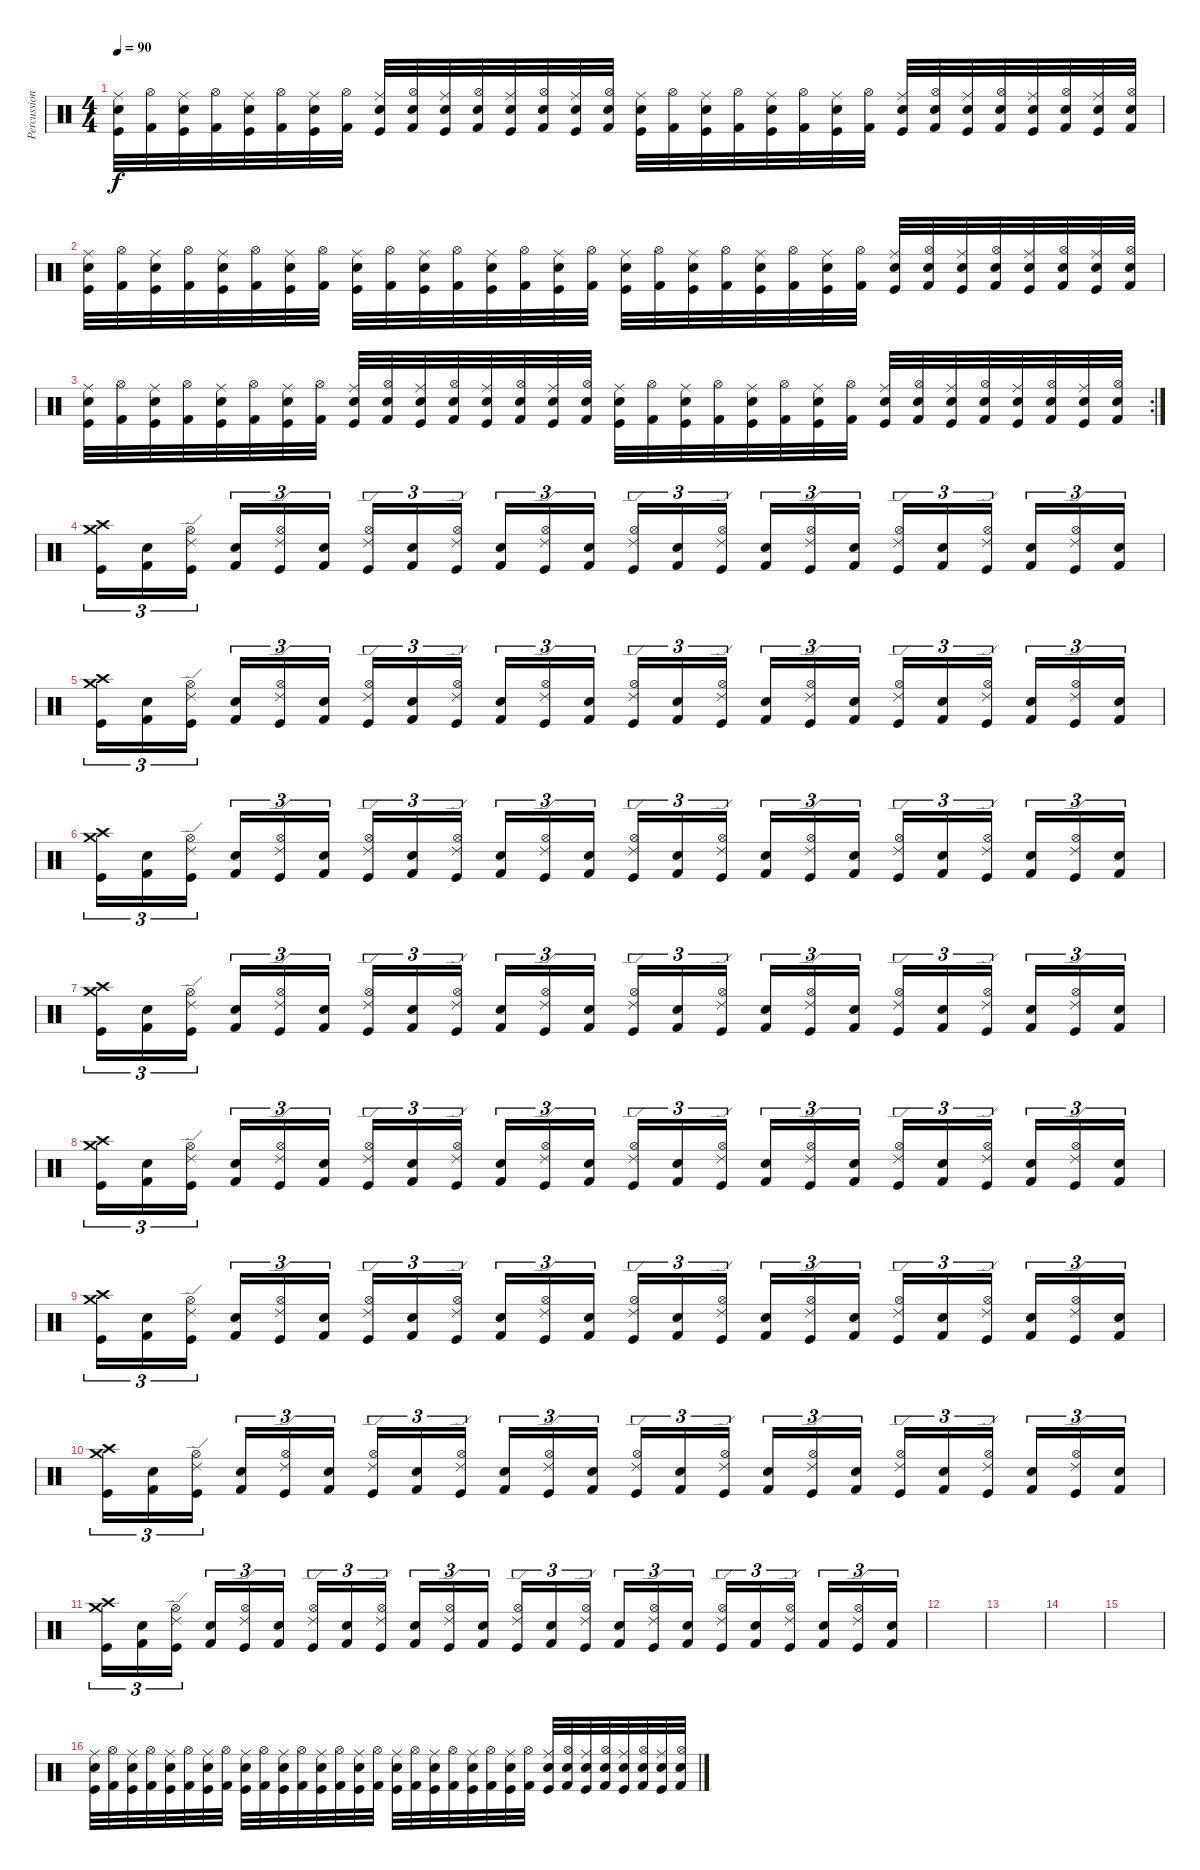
\track ("Percussion" "Percussion") {instrument percussion}
\staff {score}
\articulation defaults
\ts (4 4)
\tempo 90
\clef neutral
\ks c
("Electric Snare (hit)" "Ride (middle)" "Kick (hit)").32{dy f} ("Hi-Hat (open)" "Kick (hit) 2").32 ("Electric Snare (hit)" "Ride (middle)" "Kick (hit)").32 ("Hi-Hat (open)" "Kick (hit) 2").32 ("Electric Snare (hit)" "Ride (middle)" "Kick (hit)").32 ("Hi-Hat (open)" "Kick (hit) 2").32 ("Electric Snare (hit)" "Ride (middle)" "Kick (hit)").32 ("Hi-Hat (open)" "Kick (hit) 2").32 ("Electric Snare (hit)" "Ride (middle)" "Kick (hit)").32 ("Electric Snare (hit)" "Hi-Hat (open)" "Kick (hit) 2").32 ("Electric Snare (hit)" "Ride (middle)" "Kick (hit)").32 ("Electric Snare (hit)" "Hi-Hat (open)" "Kick (hit) 2").32 ("Electric Snare (hit)" "Ride (middle)" "Kick (hit)").32 ("Electric Snare (hit)" "Hi-Hat (open)" "Kick (hit) 2").32 ("Electric Snare (hit)" "Ride (middle)" "Kick (hit)").32 ("Electric Snare (hit)" "Hi-Hat (open)" "Kick (hit) 2").32 ("Electric Snare (hit)" "Ride (middle)" "Kick (hit)").32 ("Hi-Hat (open)" "Kick (hit) 2").32 ("Electric Snare (hit)" "Ride (middle)" "Kick (hit)").32 ("Hi-Hat (open)" "Kick (hit) 2").32 ("Electric Snare (hit)" "Ride (middle)" "Kick (hit)").32 ("Hi-Hat (open)" "Kick (hit) 2").32 ("Electric Snare (hit)" "Ride (middle)" "Kick (hit)").32 ("Hi-Hat (open)" "Kick (hit) 2").32 ("Electric Snare (hit)" "Ride (middle)" "Kick (hit)").32 ("Electric Snare (hit)" "Hi-Hat (open)" "Kick (hit) 2").32 ("Electric Snare (hit)" "Ride (middle)" "Kick (hit)").32 ("Electric Snare (hit)" "Hi-Hat (open)" "Kick (hit) 2").32 ("Electric Snare (hit)" "Ride (middle)" "Kick (hit)").32 ("Electric Snare (hit)" "Hi-Hat (open)" "Kick (hit) 2").32 ("Electric Snare (hit)" "Ride (middle)" "Kick (hit)").32 ("Electric Snare (hit)" "Hi-Hat (open)" "Kick (hit) 2").32 |
("Electric Snare (hit)" "Ride (middle)" "Kick (hit)").32 ("Hi-Hat (open)" "Kick (hit) 2").32 ("Electric Snare (hit)" "Ride (middle)" "Kick (hit)").32 ("Hi-Hat (open)" "Kick (hit) 2").32 ("Electric Snare (hit)" "Ride (middle)" "Kick (hit)").32 ("Hi-Hat (open)" "Kick (hit) 2").32 ("Electric Snare (hit)" "Ride (middle)" "Kick (hit)").32 ("Hi-Hat (open)" "Kick (hit) 2").32 ("Electric Snare (hit)" "Ride (middle)" "Kick (hit)").32 ("Hi-Hat (open)" "Kick (hit) 2").32 ("Electric Snare (hit)" "Ride (middle)" "Kick (hit)").32 ("Hi-Hat (open)" "Kick (hit) 2").32 ("Electric Snare (hit)" "Ride (middle)" "Kick (hit)").32 ("Hi-Hat (open)" "Kick (hit) 2").32 ("Electric Snare (hit)" "Ride (middle)" "Kick (hit)").32 ("Hi-Hat (open)" "Kick (hit) 2").32 ("Electric Snare (hit)" "Ride (middle)" "Kick (hit)").32 ("Hi-Hat (open)" "Kick (hit) 2").32 ("Electric Snare (hit)" "Ride (middle)" "Kick (hit)").32 ("Hi-Hat (open)" "Kick (hit) 2").32 ("Electric Snare (hit)" "Ride (middle)" "Kick (hit)").32 ("Hi-Hat (open)" "Kick (hit) 2").32 ("Electric Snare (hit)" "Ride (middle)" "Kick (hit)").32 ("Hi-Hat (open)" "Kick (hit) 2").32 ("Electric Snare (hit)" "Ride (middle)" "Kick (hit)").32 ("Electric Snare (hit)" "Hi-Hat (open)" "Kick (hit) 2").32 ("Electric Snare (hit)" "Ride (middle)" "Kick (hit)").32 ("Electric Snare (hit)" "Hi-Hat (open)" "Kick (hit) 2").32 ("Electric Snare (hit)" "Ride (middle)" "Kick (hit)").32 ("Electric Snare (hit)" "Hi-Hat (open)" "Kick (hit) 2").32 ("Electric Snare (hit)" "Ride (middle)" "Kick (hit)").32 ("Electric Snare (hit)" "Hi-Hat (open)" "Kick (hit) 2").32 |
\rc 2
("Electric Snare (hit)" "Ride (middle)" "Kick (hit)").32 ("Hi-Hat (open)" "Kick (hit) 2").32 ("Electric Snare (hit)" "Ride (middle)" "Kick (hit)").32 ("Hi-Hat (open)" "Kick (hit) 2").32 ("Electric Snare (hit)" "Ride (middle)" "Kick (hit)").32 ("Hi-Hat (open)" "Kick (hit) 2").32 ("Electric Snare (hit)" "Ride (middle)" "Kick (hit)").32 ("Hi-Hat (open)" "Kick (hit) 2").32 ("Electric Snare (hit)" "Ride (middle)" "Kick (hit)").32 ("Electric Snare (hit)" "Hi-Hat (open)" "Kick (hit) 2").32 ("Electric Snare (hit)" "Ride (middle)" "Kick (hit)").32 ("Electric Snare (hit)" "Hi-Hat (open)" "Kick (hit) 2").32 ("Electric Snare (hit)" "Ride (middle)" "Kick (hit)").32 ("Electric Snare (hit)" "Hi-Hat (open)" "Kick (hit) 2").32 ("Electric Snare (hit)" "Ride (middle)" "Kick (hit)").32 ("Electric Snare (hit)" "Hi-Hat (open)" "Kick (hit) 2").32 ("Electric Snare (hit)" "Ride (middle)" "Kick (hit)").32 ("Hi-Hat (open)" "Kick (hit) 2").32 ("Electric Snare (hit)" "Ride (middle)" "Kick (hit)").32 ("Hi-Hat (open)" "Kick (hit) 2").32 ("Electric Snare (hit)" "Ride (middle)" "Kick (hit)").32 ("Hi-Hat (open)" "Kick (hit) 2").32 ("Electric Snare (hit)" "Ride (middle)" "Kick (hit)").32 ("Hi-Hat (open)" "Kick (hit) 2").32 ("Electric Snare (hit)" "Ride (middle)" "Kick (hit)").32 ("Electric Snare (hit)" "Hi-Hat (open)" "Kick (hit) 2").32 ("Electric Snare (hit)" "Ride (middle)" "Kick (hit)").32 ("Electric Snare (hit)" "Hi-Hat (open)" "Kick (hit) 2").32 ("Electric Snare (hit)" "Ride (middle)" "Kick (hit)").32 ("Electric Snare (hit)" "Hi-Hat (open)" "Kick (hit) 2").32 ("Electric Snare (hit)" "Ride (middle)" "Kick (hit)").32 ("Electric Snare (hit)" "Hi-Hat (open)" "Kick (hit) 2").32 |
("Crash high (hit)" "Crash medium (hit)" "Kick (hit)").16{tu (3 2)} ("Snare (hit) 2" "Kick (hit) 2").16{tu (3 2)} ("Hi-Hat (open)" "Ride (edge) 2" "Kick (hit)").16{tu (3 2)} ("Snare (hit) 2" "Kick (hit) 2").16{tu (3 2)} ("Hi-Hat (open)" "Ride (edge) 2" "Kick (hit)").16{tu (3 2)} ("Snare (hit) 2" "Kick (hit) 2").16{tu (3 2)} ("Hi-Hat (open)" "Ride (edge) 2" "Kick (hit)").16{tu (3 2)} ("Snare (hit) 2" "Kick (hit) 2").16{tu (3 2)} ("Hi-Hat (open)" "Ride (edge) 2" "Kick (hit)").16{tu (3 2)} ("Snare (hit) 2" "Kick (hit) 2").16{tu (3 2)} ("Hi-Hat (open)" "Ride (edge) 2" "Kick (hit)").16{tu (3 2)} ("Snare (hit) 2" "Kick (hit) 2").16{tu (3 2)} ("Hi-Hat (open)" "Ride (edge) 2" "Kick (hit)").16{tu (3 2)} ("Snare (hit) 2" "Kick (hit) 2").16{tu (3 2)} ("Hi-Hat (open)" "Ride (edge) 2" "Kick (hit)").16{tu (3 2)} ("Snare (hit) 2" "Kick (hit) 2").16{tu (3 2)} ("Hi-Hat (open)" "Ride (edge) 2" "Kick (hit)").16{tu (3 2)} ("Snare (hit) 2" "Kick (hit) 2").16{tu (3 2)} ("Hi-Hat (open)" "Ride (edge) 2" "Kick (hit)").16{tu (3 2)} ("Snare (hit) 2" "Kick (hit) 2").16{tu (3 2)} ("Hi-Hat (open)" "Ride (edge) 2" "Kick (hit)").16{tu (3 2)} ("Snare (hit) 2" "Kick (hit) 2").16{tu (3 2)} ("Hi-Hat (open)" "Ride (edge) 2" "Kick (hit)").16{tu (3 2)} ("Snare (hit) 2" "Kick (hit) 2").16{tu (3 2)} |
("Crash high (hit)" "Crash medium (hit)" "Kick (hit)").16{tu (3 2)} ("Snare (hit) 2" "Kick (hit) 2").16{tu (3 2)} ("Hi-Hat (open)" "Ride (edge) 2" "Kick (hit)").16{tu (3 2)} ("Snare (hit) 2" "Kick (hit) 2").16{tu (3 2)} ("Hi-Hat (open)" "Ride (edge) 2" "Kick (hit)").16{tu (3 2)} ("Snare (hit) 2" "Kick (hit) 2").16{tu (3 2)} ("Hi-Hat (open)" "Ride (edge) 2" "Kick (hit)").16{tu (3 2)} ("Snare (hit) 2" "Kick (hit) 2").16{tu (3 2)} ("Hi-Hat (open)" "Ride (edge) 2" "Kick (hit)").16{tu (3 2)} ("Snare (hit) 2" "Kick (hit) 2").16{tu (3 2)} ("Hi-Hat (open)" "Ride (edge) 2" "Kick (hit)").16{tu (3 2)} ("Snare (hit) 2" "Kick (hit) 2").16{tu (3 2)} ("Hi-Hat (open)" "Ride (edge) 2" "Kick (hit)").16{tu (3 2)} ("Snare (hit) 2" "Kick (hit) 2").16{tu (3 2)} ("Hi-Hat (open)" "Ride (edge) 2" "Kick (hit)").16{tu (3 2)} ("Snare (hit) 2" "Kick (hit) 2").16{tu (3 2)} ("Hi-Hat (open)" "Ride (edge) 2" "Kick (hit)").16{tu (3 2)} ("Snare (hit) 2" "Kick (hit) 2").16{tu (3 2)} ("Hi-Hat (open)" "Ride (edge) 2" "Kick (hit)").16{tu (3 2)} ("Snare (hit) 2" "Kick (hit) 2").16{tu (3 2)} ("Hi-Hat (open)" "Ride (edge) 2" "Kick (hit)").16{tu (3 2)} ("Snare (hit) 2" "Kick (hit) 2").16{tu (3 2)} ("Hi-Hat (open)" "Ride (edge) 2" "Kick (hit)").16{tu (3 2)} ("Snare (hit) 2" "Kick (hit) 2").16{tu (3 2)} |
("Crash high (hit)" "Crash medium (hit)" "Kick (hit)").16{tu (3 2)} ("Snare (hit) 2" "Kick (hit) 2").16{tu (3 2)} ("Hi-Hat (open)" "Ride (edge) 2" "Kick (hit)").16{tu (3 2)} ("Snare (hit) 2" "Kick (hit) 2").16{tu (3 2)} ("Hi-Hat (open)" "Ride (edge) 2" "Kick (hit)").16{tu (3 2)} ("Snare (hit) 2" "Kick (hit) 2").16{tu (3 2)} ("Hi-Hat (open)" "Ride (edge) 2" "Kick (hit)").16{tu (3 2)} ("Snare (hit) 2" "Kick (hit) 2").16{tu (3 2)} ("Hi-Hat (open)" "Ride (edge) 2" "Kick (hit)").16{tu (3 2)} ("Snare (hit) 2" "Kick (hit) 2").16{tu (3 2)} ("Hi-Hat (open)" "Ride (edge) 2" "Kick (hit)").16{tu (3 2)} ("Snare (hit) 2" "Kick (hit) 2").16{tu (3 2)} ("Hi-Hat (open)" "Ride (edge) 2" "Kick (hit)").16{tu (3 2)} ("Snare (hit) 2" "Kick (hit) 2").16{tu (3 2)} ("Hi-Hat (open)" "Ride (edge) 2" "Kick (hit)").16{tu (3 2)} ("Snare (hit) 2" "Kick (hit) 2").16{tu (3 2)} ("Hi-Hat (open)" "Ride (edge) 2" "Kick (hit)").16{tu (3 2)} ("Snare (hit) 2" "Kick (hit) 2").16{tu (3 2)} ("Hi-Hat (open)" "Ride (edge) 2" "Kick (hit)").16{tu (3 2)} ("Snare (hit) 2" "Kick (hit) 2").16{tu (3 2)} ("Hi-Hat (open)" "Ride (edge) 2" "Kick (hit)").16{tu (3 2)} ("Snare (hit) 2" "Kick (hit) 2").16{tu (3 2)} ("Hi-Hat (open)" "Ride (edge) 2" "Kick (hit)").16{tu (3 2)} ("Snare (hit) 2" "Kick (hit) 2").16{tu (3 2)} |
("Crash high (hit)" "Crash medium (hit)" "Kick (hit)").16{tu (3 2)} ("Snare (hit) 2" "Kick (hit) 2").16{tu (3 2)} ("Hi-Hat (open)" "Ride (edge) 2" "Kick (hit)").16{tu (3 2)} ("Snare (hit) 2" "Kick (hit) 2").16{tu (3 2)} ("Hi-Hat (open)" "Ride (edge) 2" "Kick (hit)").16{tu (3 2)} ("Snare (hit) 2" "Kick (hit) 2").16{tu (3 2)} ("Hi-Hat (open)" "Ride (edge) 2" "Kick (hit)").16{tu (3 2)} ("Snare (hit) 2" "Kick (hit) 2").16{tu (3 2)} ("Hi-Hat (open)" "Ride (edge) 2" "Kick (hit)").16{tu (3 2)} ("Snare (hit) 2" "Kick (hit) 2").16{tu (3 2)} ("Hi-Hat (open)" "Ride (edge) 2" "Kick (hit)").16{tu (3 2)} ("Snare (hit) 2" "Kick (hit) 2").16{tu (3 2)} ("Hi-Hat (open)" "Ride (edge) 2" "Kick (hit)").16{tu (3 2)} ("Snare (hit) 2" "Kick (hit) 2").16{tu (3 2)} ("Hi-Hat (open)" "Ride (edge) 2" "Kick (hit)").16{tu (3 2)} ("Snare (hit) 2" "Kick (hit) 2").16{tu (3 2)} ("Hi-Hat (open)" "Ride (edge) 2" "Kick (hit)").16{tu (3 2)} ("Snare (hit) 2" "Kick (hit) 2").16{tu (3 2)} ("Hi-Hat (open)" "Ride (edge) 2" "Kick (hit)").16{tu (3 2)} ("Snare (hit) 2" "Kick (hit) 2").16{tu (3 2)} ("Hi-Hat (open)" "Ride (edge) 2" "Kick (hit)").16{tu (3 2)} ("Snare (hit) 2" "Kick (hit) 2").16{tu (3 2)} ("Hi-Hat (open)" "Ride (edge) 2" "Kick (hit)").16{tu (3 2)} ("Snare (hit) 2" "Kick (hit) 2").16{tu (3 2)} |
("Crash high (hit)" "Crash medium (hit)" "Kick (hit)").16{tu (3 2)} ("Snare (hit) 2" "Kick (hit) 2").16{tu (3 2)} ("Hi-Hat (open)" "Ride (edge) 2" "Kick (hit)").16{tu (3 2)} ("Snare (hit) 2" "Kick (hit) 2").16{tu (3 2)} ("Hi-Hat (open)" "Ride (edge) 2" "Kick (hit)").16{tu (3 2)} ("Snare (hit) 2" "Kick (hit) 2").16{tu (3 2)} ("Hi-Hat (open)" "Ride (edge) 2" "Kick (hit)").16{tu (3 2)} ("Snare (hit) 2" "Kick (hit) 2").16{tu (3 2)} ("Hi-Hat (open)" "Ride (edge) 2" "Kick (hit)").16{tu (3 2)} ("Snare (hit) 2" "Kick (hit) 2").16{tu (3 2)} ("Hi-Hat (open)" "Ride (edge) 2" "Kick (hit)").16{tu (3 2)} ("Snare (hit) 2" "Kick (hit) 2").16{tu (3 2)} ("Hi-Hat (open)" "Ride (edge) 2" "Kick (hit)").16{tu (3 2)} ("Snare (hit) 2" "Kick (hit) 2").16{tu (3 2)} ("Hi-Hat (open)" "Ride (edge) 2" "Kick (hit)").16{tu (3 2)} ("Snare (hit) 2" "Kick (hit) 2").16{tu (3 2)} ("Hi-Hat (open)" "Ride (edge) 2" "Kick (hit)").16{tu (3 2)} ("Snare (hit) 2" "Kick (hit) 2").16{tu (3 2)} ("Hi-Hat (open)" "Ride (edge) 2" "Kick (hit)").16{tu (3 2)} ("Snare (hit) 2" "Kick (hit) 2").16{tu (3 2)} ("Hi-Hat (open)" "Ride (edge) 2" "Kick (hit)").16{tu (3 2)} ("Snare (hit) 2" "Kick (hit) 2").16{tu (3 2)} ("Hi-Hat (open)" "Ride (edge) 2" "Kick (hit)").16{tu (3 2)} ("Snare (hit) 2" "Kick (hit) 2").16{tu (3 2)} |
("Crash high (hit)" "Crash medium (hit)" "Kick (hit)").16{tu (3 2)} ("Snare (hit) 2" "Kick (hit) 2").16{tu (3 2)} ("Hi-Hat (open)" "Ride (edge) 2" "Kick (hit)").16{tu (3 2)} ("Snare (hit) 2" "Kick (hit) 2").16{tu (3 2)} ("Hi-Hat (open)" "Ride (edge) 2" "Kick (hit)").16{tu (3 2)} ("Snare (hit) 2" "Kick (hit) 2").16{tu (3 2)} ("Hi-Hat (open)" "Ride (edge) 2" "Kick (hit)").16{tu (3 2)} ("Snare (hit) 2" "Kick (hit) 2").16{tu (3 2)} ("Hi-Hat (open)" "Ride (edge) 2" "Kick (hit)").16{tu (3 2)} ("Snare (hit) 2" "Kick (hit) 2").16{tu (3 2)} ("Hi-Hat (open)" "Ride (edge) 2" "Kick (hit)").16{tu (3 2)} ("Snare (hit) 2" "Kick (hit) 2").16{tu (3 2)} ("Hi-Hat (open)" "Ride (edge) 2" "Kick (hit)").16{tu (3 2)} ("Snare (hit) 2" "Kick (hit) 2").16{tu (3 2)} ("Hi-Hat (open)" "Ride (edge) 2" "Kick (hit)").16{tu (3 2)} ("Snare (hit) 2" "Kick (hit) 2").16{tu (3 2)} ("Hi-Hat (open)" "Ride (edge) 2" "Kick (hit)").16{tu (3 2)} ("Snare (hit) 2" "Kick (hit) 2").16{tu (3 2)} ("Hi-Hat (open)" "Ride (edge) 2" "Kick (hit)").16{tu (3 2)} ("Snare (hit) 2" "Kick (hit) 2").16{tu (3 2)} ("Hi-Hat (open)" "Ride (edge) 2" "Kick (hit)").16{tu (3 2)} ("Snare (hit) 2" "Kick (hit) 2").16{tu (3 2)} ("Hi-Hat (open)" "Ride (edge) 2" "Kick (hit)").16{tu (3 2)} ("Snare (hit) 2" "Kick (hit) 2").16{tu (3 2)} |
("Crash high (hit)" "Crash medium (hit)" "Kick (hit)").16{tu (3 2)} ("Snare (hit) 2" "Kick (hit) 2").16{tu (3 2)} ("Hi-Hat (open)" "Ride (edge) 2" "Kick (hit)").16{tu (3 2)} ("Snare (hit) 2" "Kick (hit) 2").16{tu (3 2)} ("Hi-Hat (open)" "Ride (edge) 2" "Kick (hit)").16{tu (3 2)} ("Snare (hit) 2" "Kick (hit) 2").16{tu (3 2)} ("Hi-Hat (open)" "Ride (edge) 2" "Kick (hit)").16{tu (3 2)} ("Snare (hit) 2" "Kick (hit) 2").16{tu (3 2)} ("Hi-Hat (open)" "Ride (edge) 2" "Kick (hit)").16{tu (3 2)} ("Snare (hit) 2" "Kick (hit) 2").16{tu (3 2)} ("Hi-Hat (open)" "Ride (edge) 2" "Kick (hit)").16{tu (3 2)} ("Snare (hit) 2" "Kick (hit) 2").16{tu (3 2)} ("Hi-Hat (open)" "Ride (edge) 2" "Kick (hit)").16{tu (3 2)} ("Snare (hit) 2" "Kick (hit) 2").16{tu (3 2)} ("Hi-Hat (open)" "Ride (edge) 2" "Kick (hit)").16{tu (3 2)} ("Snare (hit) 2" "Kick (hit) 2").16{tu (3 2)} ("Hi-Hat (open)" "Ride (edge) 2" "Kick (hit)").16{tu (3 2)} ("Snare (hit) 2" "Kick (hit) 2").16{tu (3 2)} ("Hi-Hat (open)" "Ride (edge) 2" "Kick (hit)").16{tu (3 2)} ("Snare (hit) 2" "Kick (hit) 2").16{tu (3 2)} ("Hi-Hat (open)" "Ride (edge) 2" "Kick (hit)").16{tu (3 2)} ("Snare (hit) 2" "Kick (hit) 2").16{tu (3 2)} ("Hi-Hat (open)" "Ride (edge) 2" "Kick (hit)").16{tu (3 2)} ("Snare (hit) 2" "Kick (hit) 2").16{tu (3 2)} |
("Crash high (hit)" "Crash medium (hit)" "Kick (hit)").16{tu (3 2)} ("Snare (hit) 2" "Kick (hit) 2").16{tu (3 2)} ("Hi-Hat (open)" "Ride (edge) 2" "Kick (hit)").16{tu (3 2)} ("Snare (hit) 2" "Kick (hit) 2").16{tu (3 2)} ("Hi-Hat (open)" "Ride (edge) 2" "Kick (hit)").16{tu (3 2)} ("Snare (hit) 2" "Kick (hit) 2").16{tu (3 2)} ("Hi-Hat (open)" "Ride (edge) 2" "Kick (hit)").16{tu (3 2)} ("Snare (hit) 2" "Kick (hit) 2").16{tu (3 2)} ("Hi-Hat (open)" "Ride (edge) 2" "Kick (hit)").16{tu (3 2)} ("Snare (hit) 2" "Kick (hit) 2").16{tu (3 2)} ("Hi-Hat (open)" "Ride (edge) 2" "Kick (hit)").16{tu (3 2)} ("Snare (hit) 2" "Kick (hit) 2").16{tu (3 2)} ("Hi-Hat (open)" "Ride (edge) 2" "Kick (hit)").16{tu (3 2)} ("Snare (hit) 2" "Kick (hit) 2").16{tu (3 2)} ("Hi-Hat (open)" "Ride (edge) 2" "Kick (hit)").16{tu (3 2)} ("Snare (hit) 2" "Kick (hit) 2").16{tu (3 2)} ("Hi-Hat (open)" "Ride (edge) 2" "Kick (hit)").16{tu (3 2)} ("Snare (hit) 2" "Kick (hit) 2").16{tu (3 2)} ("Hi-Hat (open)" "Ride (edge) 2" "Kick (hit)").16{tu (3 2)} ("Snare (hit) 2" "Kick (hit) 2").16{tu (3 2)} ("Hi-Hat (open)" "Ride (edge) 2" "Kick (hit)").16{tu (3 2)} ("Snare (hit) 2" "Kick (hit) 2").16{tu (3 2)} ("Hi-Hat (open)" "Ride (edge) 2" "Kick (hit)").16{tu (3 2)} ("Snare (hit) 2" "Kick (hit) 2").16{tu (3 2)} |
|
|
|
|
("Electric Snare (hit)" "Ride (middle)" "Kick (hit)").32 ("Hi-Hat (open)" "Kick (hit) 2").32 ("Electric Snare (hit)" "Ride (middle)" "Kick (hit)").32 ("Hi-Hat (open)" "Kick (hit) 2").32 ("Electric Snare (hit)" "Ride (middle)" "Kick (hit)").32 ("Hi-Hat (open)" "Kick (hit) 2").32 ("Electric Snare (hit)" "Ride (middle)" "Kick (hit)").32 ("Hi-Hat (open)" "Kick (hit) 2").32 ("Electric Snare (hit)" "Ride (middle)" "Kick (hit)").32 ("Hi-Hat (open)" "Kick (hit) 2").32 ("Electric Snare (hit)" "Ride (middle)" "Kick (hit)").32 ("Hi-Hat (open)" "Kick (hit) 2").32 ("Electric Snare (hit)" "Ride (middle)" "Kick (hit)").32 ("Hi-Hat (open)" "Kick (hit) 2").32 ("Electric Snare (hit)" "Ride (middle)" "Kick (hit)").32 ("Hi-Hat (open)" "Kick (hit) 2").32 ("Electric Snare (hit)" "Ride (middle)" "Kick (hit)").32 ("Hi-Hat (open)" "Kick (hit) 2").32 ("Electric Snare (hit)" "Ride (middle)" "Kick (hit)").32 ("Hi-Hat (open)" "Kick (hit) 2").32 ("Electric Snare (hit)" "Ride (middle)" "Kick (hit)").32 ("Hi-Hat (open)" "Kick (hit) 2").32 ("Electric Snare (hit)" "Ride (middle)" "Kick (hit)").32 ("Hi-Hat (open)" "Kick (hit) 2").32 ("Electric Snare (hit)" "Ride (middle)" "Kick (hit)").32 ("Electric Snare (hit)" "Hi-Hat (open)" "Kick (hit) 2").32 ("Electric Snare (hit)" "Ride (middle)" "Kick (hit)").32 ("Electric Snare (hit)" "Hi-Hat (open)" "Kick (hit) 2").32 ("Electric Snare (hit)" "Ride (middle)" "Kick (hit)").32 ("Electric Snare (hit)" "Hi-Hat (open)" "Kick (hit) 2").32 ("Electric Snare (hit)" "Ride (middle)" "Kick (hit)").32 ("Electric Snare (hit)" "Hi-Hat (open)" "Kick (hit) 2").32
